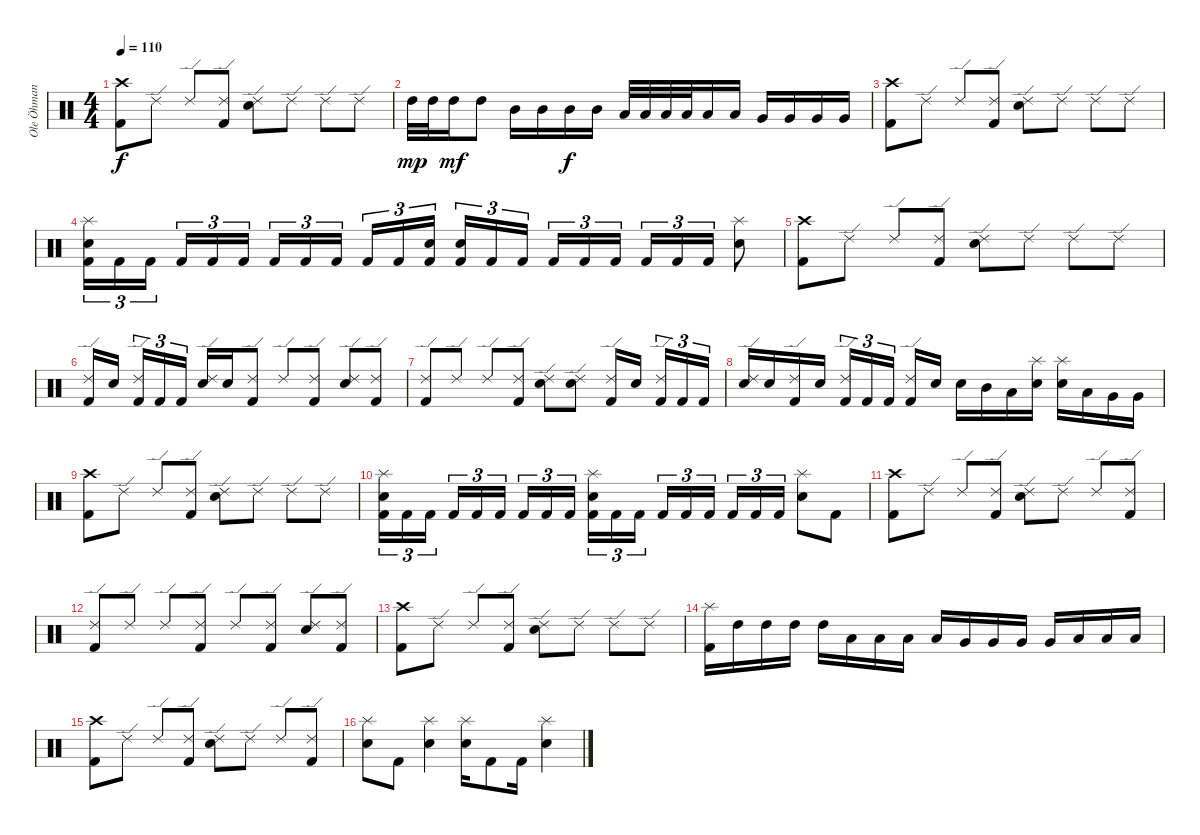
\track ("Ole Öhman" "Ole Öhman") {instrument percussion}
\staff {score}
\articulation defaults
\ts (4 4)
\tempo 110
\clef neutral
\ks c
("Crash high (hit)" "Kick (hit) 2").8{dy f} "Ride (edge) 2".8 "Ride (edge) 2".8 ("Ride (edge) 2" "Kick (hit) 2").8 ("Ride (edge) 2" "Electric Snare (hit)").8 "Ride (edge) 2".8 "Ride (edge) 2".8 "Ride (edge) 2".8 |
"High Tom (hit)".32{dy mp} "High Tom (hit)".32 "High Tom (hit)".16{dy mf} "High Tom (hit)".8 "Mid Tom (hit)".16 "Mid Tom (hit)".16 "Mid Tom (hit)".16{dy f} "Mid Tom (hit)".16 "Low Tom (hit)".32 "Low Tom (hit)".32 "Low Tom (hit)".32 "Low Tom (hit)".32 "Low Tom (hit)".16 "Low Tom (hit)".16 "Very Low Tom (hit)".16 "Very Low Tom (hit)".16 "Very Low Tom (hit)".16 "Very Low Tom (hit)".16 |
("Crash high (hit)" "Kick (hit) 2").8 "Ride (edge) 2".8 "Ride (edge) 2".8 ("Ride (edge) 2" "Kick (hit) 2").8 ("Ride (edge) 2" "Electric Snare (hit)").8 "Ride (edge) 2".8 "Ride (edge) 2".8 "Ride (edge) 2".8 |
("Splash (hit)" "Electric Snare (hit)" "Kick (hit) 2").16{tu (3 2)} "Kick (hit) 2".16{tu (3 2)} "Kick (hit) 2".16{tu (3 2)} "Kick (hit) 2".16{tu (3 2)} "Kick (hit) 2".16{tu (3 2)} "Kick (hit) 2".16{tu (3 2)} "Kick (hit) 2".16{tu (3 2)} "Kick (hit) 2".16{tu (3 2)} "Kick (hit) 2".16{tu (3 2)} "Kick (hit) 2".16{tu (3 2)} "Kick (hit) 2".16{tu (3 2)} ("Electric Snare (hit)" "Kick (hit) 2").16{tu (3 2)} ("Electric Snare (hit)" "Kick (hit) 2").16{tu (3 2)} "Kick (hit) 2".16{tu (3 2)} "Kick (hit) 2".16{tu (3 2)} "Kick (hit) 2".16{tu (3 2)} "Kick (hit) 2".16{tu (3 2)} "Kick (hit) 2".16{tu (3 2)} "Kick (hit) 2".16{tu (3 2)} "Kick (hit) 2".16{tu (3 2)} "Kick (hit) 2".16{tu (3 2)} ("Splash (hit)" "Electric Snare (hit)").8 |
("Crash high (hit)" "Kick (hit) 2").8 "Ride (edge) 2".8 "Ride (edge) 2".8 ("Ride (edge) 2" "Kick (hit) 2").8 ("Ride (edge) 2" "Electric Snare (hit)").8 "Ride (edge) 2".8 "Ride (edge) 2".8 "Ride (edge) 2".8 |
("Ride (edge) 2" "Kick (hit) 2").16 "Electric Snare (hit)".16 ("Ride (edge) 2" "Kick (hit) 2").16{tu (3 2)} "Kick (hit) 2".16{tu (3 2)} "Kick (hit) 2".16{tu (3 2)} ("Ride (edge) 2" "Electric Snare (hit)").16 "Electric Snare (hit)".16 ("Ride (edge) 2" "Kick (hit) 2").8 "Ride (edge) 2".8 ("Ride (edge) 2" "Kick (hit) 2").8 ("Ride (edge) 2" "Electric Snare (hit)").8 ("Ride (edge) 2" "Kick (hit) 2").8 |
("Ride (edge) 2" "Kick (hit) 2").8 "Ride (edge) 2".8 "Ride (edge) 2".8 ("Ride (edge) 2" "Kick (hit) 2").8 ("Ride (edge) 2" "Electric Snare (hit)").8 ("Ride (edge) 2" "Electric Snare (hit)").8 ("Ride (edge) 2" "Kick (hit) 2").16 "Electric Snare (hit)".16 ("Ride (edge) 2" "Kick (hit) 2").16{tu (3 2)} "Kick (hit) 2".16{tu (3 2)} "Kick (hit) 2".16{tu (3 2)} |
("Ride (edge) 2" "Electric Snare (hit)").16 "Electric Snare (hit)".16 ("Ride (edge) 2" "Kick (hit) 2").16 "Electric Snare (hit)".16 ("Ride (edge) 2" "Kick (hit) 2").16{tu (3 2)} "Kick (hit) 2".16{tu (3 2)} "Kick (hit) 2".16{tu (3 2)} ("Ride (edge) 2" "Kick (hit) 2").16 "Electric Snare (hit)".16 "Electric Snare (hit)".16 "Mid Tom (hit)".16 "Low Tom (hit)".16 ("Splash (hit)" "Electric Snare (hit)").16 ("Splash (hit)" "Electric Snare (hit)").16 "Low Tom (hit)".16 "Very Low Tom (hit)".16 "Very Low Tom (hit)".16 |
("Crash high (hit)" "Kick (hit) 2").8 "Ride (edge) 2".8 "Ride (edge) 2".8 ("Ride (edge) 2" "Kick (hit) 2").8 ("Ride (edge) 2" "Electric Snare (hit)").8 "Ride (edge) 2".8 "Ride (edge) 2".8 "Ride (edge) 2".8 |
("Splash (hit)" "Electric Snare (hit)" "Kick (hit) 2").16{tu (3 2)} "Kick (hit) 2".16{tu (3 2)} "Kick (hit) 2".16{tu (3 2)} "Kick (hit) 2".16{tu (3 2)} "Kick (hit) 2".16{tu (3 2)} "Kick (hit) 2".16{tu (3 2)} "Kick (hit) 2".16{tu (3 2)} "Kick (hit) 2".16{tu (3 2)} "Kick (hit) 2".16{tu (3 2)} ("Splash (hit)" "Electric Snare (hit)" "Kick (hit) 2").16{tu (3 2)} "Kick (hit) 2".16{tu (3 2)} "Kick (hit) 2".16{tu (3 2)} "Kick (hit) 2".16{tu (3 2)} "Kick (hit) 2".16{tu (3 2)} "Kick (hit) 2".16{tu (3 2)} "Kick (hit) 2".16{tu (3 2)} "Kick (hit) 2".16{tu (3 2)} "Kick (hit) 2".16{tu (3 2)} ("Splash (hit)" "Electric Snare (hit)").8 "Kick (hit) 2".8 |
("Crash high (hit)" "Kick (hit) 2").8 "Ride (edge) 2".8 "Ride (edge) 2".8 ("Ride (edge) 2" "Kick (hit) 2").8 ("Ride (edge) 2" "Electric Snare (hit)").8 "Ride (edge) 2".8 "Ride (edge) 2".8 ("Ride (edge) 2" "Kick (hit) 2").8 |
("Ride (edge) 2" "Kick (hit) 2").8 "Ride (edge) 2".8 "Ride (edge) 2".8 ("Ride (edge) 2" "Kick (hit) 2").8 "Ride (edge) 2".8 ("Ride (edge) 2" "Kick (hit) 2").8 ("Ride (edge) 2" "Electric Snare (hit)").8 ("Ride (edge) 2" "Kick (hit) 2").8 |
("Crash high (hit)" "Kick (hit) 2").8 "Ride (edge) 2".8 "Ride (edge) 2".8 ("Ride (edge) 2" "Kick (hit) 2").8 ("Ride (edge) 2" "Electric Snare (hit)").8 "Ride (edge) 2".8 "Ride (edge) 2".8 "Ride (edge) 2".8 |
("Splash (hit)" "Kick (hit) 2").16 "High Tom (hit)".16 "High Tom (hit)".16 "High Tom (hit)".16 "High Tom (hit)".16 "Low Tom (hit)".16 "Low Tom (hit)".16 "Low Tom (hit)".16 "Low Tom (hit)".16 "Very Low Tom (hit)".16 "Very Low Tom (hit)".16 "Very Low Tom (hit)".16 "Very Low Tom (hit)".16 "Low Floor Tom (hit)".16 "Low Floor Tom (hit)".16 "Low Floor Tom (hit)".16 |
("Crash high (hit)" "Kick (hit) 2").8 "Ride (edge) 2".8 "Ride (edge) 2".8 ("Ride (edge) 2" "Kick (hit) 2").8 ("Ride (edge) 2" "Electric Snare (hit)").8 "Ride (edge) 2".8 "Ride (edge) 2".8 ("Ride (edge) 2" "Kick (hit) 2").8 |
("Splash (hit)" "Electric Snare (hit)").8 "Kick (hit) 2".8 ("Splash (hit)" "Electric Snare (hit)").4 ("Splash (hit)" "Electric Snare (hit)").16 "Kick (hit) 2".8 "Kick (hit) 2".16 ("Splash (hit)" "Electric Snare (hit)").4
